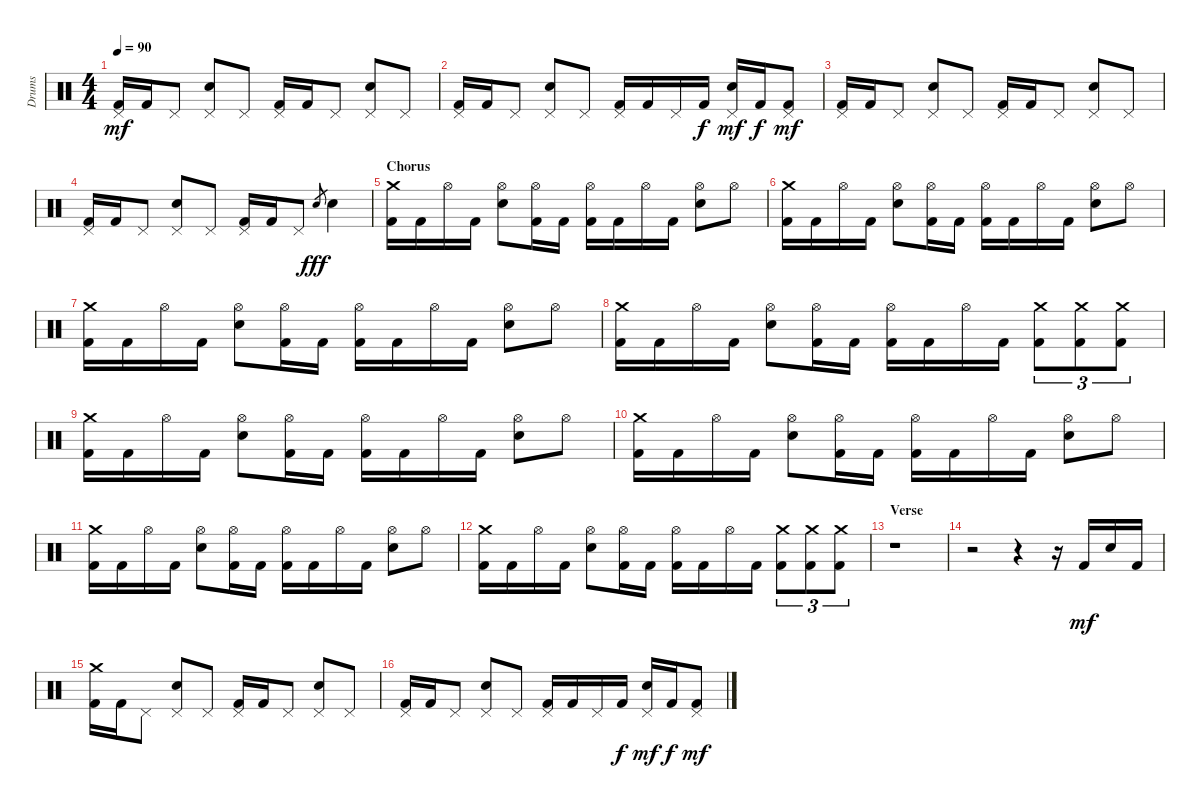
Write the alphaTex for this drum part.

\track ("Drums" "Drums") {instrument percussion}
\staff {score}
\articulation defaults
\ts (4 4)
\tempo 90
\clef neutral
\ks c
("Pedal Hi-Hat (hit)" "Kick (hit) 2").16{dy mf} "Kick (hit) 2".16 "Pedal Hi-Hat (hit)".8 ("Pedal Hi-Hat (hit)" "Electric Snare (hit)").8 "Pedal Hi-Hat (hit)".8 ("Pedal Hi-Hat (hit)" "Kick (hit) 2").16 "Kick (hit) 2".16 "Pedal Hi-Hat (hit)".8 ("Pedal Hi-Hat (hit)" "Electric Snare (hit)").8 "Pedal Hi-Hat (hit)".8 |
("Pedal Hi-Hat (hit)" "Kick (hit) 2").16 "Kick (hit) 2".16 "Pedal Hi-Hat (hit)".8 ("Pedal Hi-Hat (hit)" "Electric Snare (hit)").8 "Pedal Hi-Hat (hit)".8 ("Pedal Hi-Hat (hit)" "Kick (hit) 2").16 "Kick (hit) 2".16 "Pedal Hi-Hat (hit)".16 "Kick (hit) 2".16{dy f} ("Pedal Hi-Hat (hit)" "Electric Snare (hit)").16{dy mf} "Kick (hit) 2".16{dy f} ("Pedal Hi-Hat (hit)" "Kick (hit) 2").8{dy mf} |
("Pedal Hi-Hat (hit)" "Kick (hit) 2").16 "Kick (hit) 2".16 "Pedal Hi-Hat (hit)".8 ("Pedal Hi-Hat (hit)" "Electric Snare (hit)").8 "Pedal Hi-Hat (hit)".8 ("Pedal Hi-Hat (hit)" "Kick (hit) 2").16 "Kick (hit) 2".16 "Pedal Hi-Hat (hit)".8 ("Pedal Hi-Hat (hit)" "Electric Snare (hit)").8 "Pedal Hi-Hat (hit)".8 |
("Pedal Hi-Hat (hit)" "Kick (hit) 2").16 "Kick (hit) 2".16 "Pedal Hi-Hat (hit)".8 ("Pedal Hi-Hat (hit)" "Electric Snare (hit)").8 "Pedal Hi-Hat (hit)".8 ("Pedal Hi-Hat (hit)" "Kick (hit) 2").16 "Kick (hit) 2".16 "Pedal Hi-Hat (hit)".8 "Electric Snare (hit)".8{gr dy fff} "Electric Snare (hit)".4 |
\section ("" "Chorus")
("Crash medium (hit)" "Kick (hit) 2").16 "Kick (hit) 2".16 "Hi-Hat (open)".16 "Kick (hit) 2".16 ("Hi-Hat (open)" "Electric Snare (hit)").8 ("Hi-Hat (open)" "Kick (hit) 2").16 "Kick (hit) 2".16 ("Hi-Hat (open)" "Kick (hit) 2").16 "Kick (hit) 2".16 "Hi-Hat (open)".16 "Kick (hit) 2".16 ("Hi-Hat (open)" "Electric Snare (hit)").8 "Hi-Hat (open)".8 |
("Crash medium (hit)" "Kick (hit) 2").16 "Kick (hit) 2".16 "Hi-Hat (open)".16 "Kick (hit) 2".16 ("Hi-Hat (open)" "Electric Snare (hit)").8 ("Hi-Hat (open)" "Kick (hit) 2").16 "Kick (hit) 2".16 ("Hi-Hat (open)" "Kick (hit) 2").16 "Kick (hit) 2".16 "Hi-Hat (open)".16 "Kick (hit) 2".16 ("Hi-Hat (open)" "Electric Snare (hit)").8 "Hi-Hat (open)".8 |
("Crash medium (hit)" "Kick (hit) 2").16 "Kick (hit) 2".16 "Hi-Hat (open)".16 "Kick (hit) 2".16 ("Hi-Hat (open)" "Electric Snare (hit)").8 ("Hi-Hat (open)" "Kick (hit) 2").16 "Kick (hit) 2".16 ("Hi-Hat (open)" "Kick (hit) 2").16 "Kick (hit) 2".16 "Hi-Hat (open)".16 "Kick (hit) 2".16 ("Hi-Hat (open)" "Electric Snare (hit)").8 "Hi-Hat (open)".8 |
("Crash medium (hit)" "Kick (hit) 2").16 "Kick (hit) 2".16 "Hi-Hat (open)".16 "Kick (hit) 2".16 ("Hi-Hat (open)" "Electric Snare (hit)").8 ("Hi-Hat (open)" "Kick (hit) 2").16 "Kick (hit) 2".16 ("Hi-Hat (open)" "Kick (hit) 2").16 "Kick (hit) 2".16 "Hi-Hat (open)".16 "Kick (hit) 2".16 ("Crash medium (hit)" "Kick (hit) 2").8{tu (3 2)} ("Crash medium (hit)" "Kick (hit) 2").8{tu (3 2)} ("Crash medium (hit)" "Kick (hit) 2").8{tu (3 2)} |
("Crash medium (hit)" "Kick (hit) 2").16 "Kick (hit) 2".16 "Hi-Hat (open)".16 "Kick (hit) 2".16 ("Hi-Hat (open)" "Electric Snare (hit)").8 ("Hi-Hat (open)" "Kick (hit) 2").16 "Kick (hit) 2".16 ("Hi-Hat (open)" "Kick (hit) 2").16 "Kick (hit) 2".16 "Hi-Hat (open)".16 "Kick (hit) 2".16 ("Hi-Hat (open)" "Electric Snare (hit)").8 "Hi-Hat (open)".8 |
("Crash medium (hit)" "Kick (hit) 2").16 "Kick (hit) 2".16 "Hi-Hat (open)".16 "Kick (hit) 2".16 ("Hi-Hat (open)" "Electric Snare (hit)").8 ("Hi-Hat (open)" "Kick (hit) 2").16 "Kick (hit) 2".16 ("Hi-Hat (open)" "Kick (hit) 2").16 "Kick (hit) 2".16 "Hi-Hat (open)".16 "Kick (hit) 2".16 ("Hi-Hat (open)" "Electric Snare (hit)").8 "Hi-Hat (open)".8 |
("Crash medium (hit)" "Kick (hit) 2").16 "Kick (hit) 2".16 "Hi-Hat (open)".16 "Kick (hit) 2".16 ("Hi-Hat (open)" "Electric Snare (hit)").8 ("Hi-Hat (open)" "Kick (hit) 2").16 "Kick (hit) 2".16 ("Hi-Hat (open)" "Kick (hit) 2").16 "Kick (hit) 2".16 "Hi-Hat (open)".16 "Kick (hit) 2".16 ("Hi-Hat (open)" "Electric Snare (hit)").8 "Hi-Hat (open)".8 |
("Crash medium (hit)" "Kick (hit) 2").16 "Kick (hit) 2".16 "Hi-Hat (open)".16 "Kick (hit) 2".16 ("Hi-Hat (open)" "Electric Snare (hit)").8 ("Hi-Hat (open)" "Kick (hit) 2").16 "Kick (hit) 2".16 ("Hi-Hat (open)" "Kick (hit) 2").16 "Kick (hit) 2".16 "Hi-Hat (open)".16 "Kick (hit) 2".16 ("Crash medium (hit)" "Kick (hit) 2").8{tu (3 2)} ("Crash medium (hit)" "Kick (hit) 2").8{tu (3 2)} ("Crash medium (hit)" "Kick (hit) 2").8{tu (3 2)} |
\section ("" "Verse")
r.1 |
r.2 r.4 r.16 "Kick (hit) 2".16{dy mf} "Electric Snare (hit)".16 "Kick (hit) 2".16 |
("Crash medium (hit)" "Kick (hit) 2").16 "Kick (hit) 2".16 "Pedal Hi-Hat (hit)".8 ("Pedal Hi-Hat (hit)" "Electric Snare (hit)").8 "Pedal Hi-Hat (hit)".8 ("Pedal Hi-Hat (hit)" "Kick (hit) 2").16 "Kick (hit) 2".16 "Pedal Hi-Hat (hit)".8 ("Pedal Hi-Hat (hit)" "Electric Snare (hit)").8 "Pedal Hi-Hat (hit)".8 |
("Pedal Hi-Hat (hit)" "Kick (hit) 2").16 "Kick (hit) 2".16 "Pedal Hi-Hat (hit)".8 ("Pedal Hi-Hat (hit)" "Electric Snare (hit)").8 "Pedal Hi-Hat (hit)".8 ("Pedal Hi-Hat (hit)" "Kick (hit) 2").16 "Kick (hit) 2".16 "Pedal Hi-Hat (hit)".16 "Kick (hit) 2".16{dy f} ("Pedal Hi-Hat (hit)" "Electric Snare (hit)").16{dy mf} "Kick (hit) 2".16{dy f} ("Pedal Hi-Hat (hit)" "Kick (hit) 2").8{dy mf}
